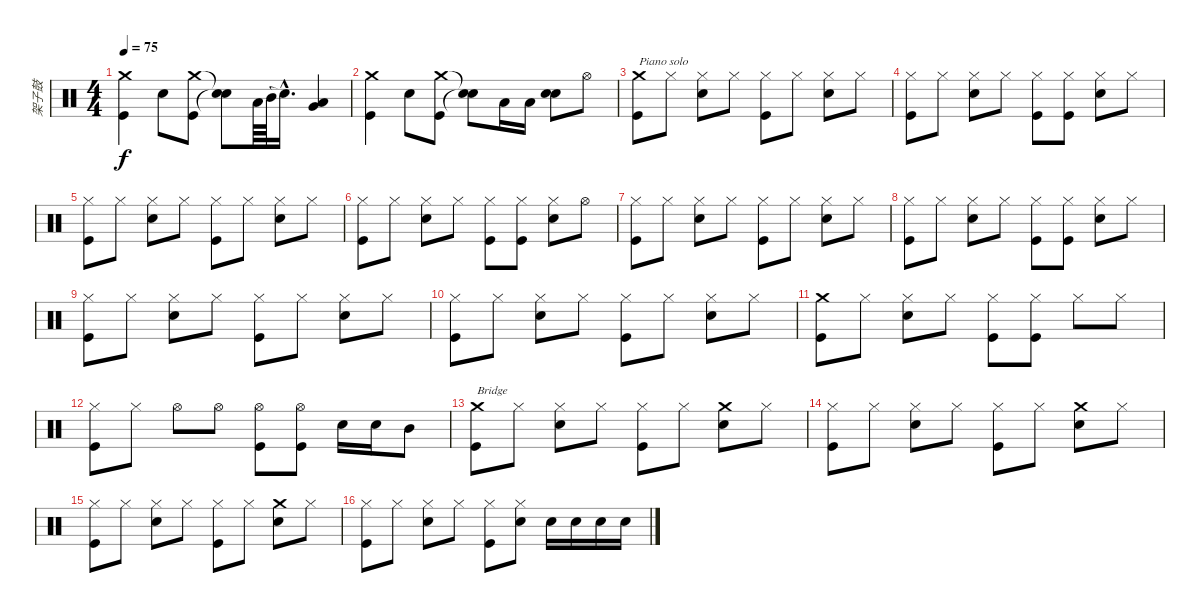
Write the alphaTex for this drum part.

\track ("架子鼓" "架子鼓") {instrument percussion}
\staff {score}
\articulation defaults
\ts (4 4)
\tempo 75
\clef neutral
\ks c
("Crash medium (hit)" "Kick (hit)").4{dy f} "Snare (hit) 2".8 ("Crash medium (hit)" "Kick (hit)").8 ("Snare (hit)"{t} "Snare (hit)"{t}).8 "Low Tom (hit)".64 "Mid Tom (hit)".64 "Snare (hit)"{hac t}.16{d} ("Low Tom (hit)" "Very Low Tom (hit)").4 |
("Crash medium (hit)" "Kick (hit)").4 "Snare (hit) 2".8 ("Crash medium (hit)" "Kick (hit)").8 ("Snare (hit)"{t} "Snare (hit)"{t}).8 "Low Tom (hit)".16 "Low Tom (hit)".16 ("Snare (hit) 2" "Snare (hit) 2").8 "Hi-Hat (open)".8 |
("Crash medium (hit)" "Kick (hit)").8{txt "Piano solo"} "Hi-Hat (closed)".8 ("Hi-Hat (closed)" "Snare (hit) 2").8 "Hi-Hat (closed)".8 ("Hi-Hat (closed)" "Kick (hit)").8 "Hi-Hat (closed)".8 ("Hi-Hat (closed)" "Snare (hit) 2").8 "Hi-Hat (closed)".8 |
("Hi-Hat (closed)" "Kick (hit)").8 "Hi-Hat (closed)".8 ("Hi-Hat (closed)" "Snare (hit) 2").8 "Hi-Hat (closed)".8 ("Hi-Hat (closed)" "Kick (hit)").8 ("Hi-Hat (closed)" "Kick (hit)").8 ("Hi-Hat (closed)" "Snare (hit) 2").8 "Hi-Hat (closed)".8 |
("Hi-Hat (closed)" "Kick (hit)").8 "Hi-Hat (closed)".8 ("Hi-Hat (closed)" "Snare (hit) 2").8 "Hi-Hat (closed)".8 ("Hi-Hat (closed)" "Kick (hit)").8 "Hi-Hat (closed)".8 ("Hi-Hat (closed)" "Snare (hit) 2").8 "Hi-Hat (closed)".8 |
("Hi-Hat (closed)" "Kick (hit)").8 "Hi-Hat (closed)".8 ("Hi-Hat (closed)" "Snare (hit) 2").8 "Hi-Hat (closed)".8 ("Hi-Hat (closed)" "Kick (hit)").8 ("Hi-Hat (closed)" "Kick (hit)").8 ("Hi-Hat (closed)" "Snare (hit) 2").8 "Hi-Hat (open)".8 |
("Hi-Hat (closed)" "Kick (hit)").8 "Hi-Hat (closed)".8 ("Hi-Hat (closed)" "Snare (hit) 2").8 "Hi-Hat (closed)".8 ("Hi-Hat (closed)" "Kick (hit)").8 "Hi-Hat (closed)".8 ("Hi-Hat (closed)" "Snare (hit) 2").8 "Hi-Hat (closed)".8 |
("Hi-Hat (closed)" "Kick (hit)").8 "Hi-Hat (closed)".8 ("Hi-Hat (closed)" "Snare (hit) 2").8 "Hi-Hat (closed)".8 ("Hi-Hat (closed)" "Kick (hit)").8 ("Hi-Hat (closed)" "Kick (hit)").8 ("Hi-Hat (closed)" "Snare (hit) 2").8 "Hi-Hat (closed)".8 |
("Hi-Hat (closed)" "Kick (hit)").8 "Hi-Hat (closed)".8 ("Hi-Hat (closed)" "Snare (hit) 2").8 "Hi-Hat (closed)".8 ("Hi-Hat (closed)" "Kick (hit)").8 "Hi-Hat (closed)".8 ("Hi-Hat (closed)" "Snare (hit) 2").8 "Hi-Hat (closed)".8 |
("Hi-Hat (closed)" "Kick (hit)").8 "Hi-Hat (closed)".8 ("Hi-Hat (closed)" "Snare (hit) 2").8 "Hi-Hat (closed)".8 ("Hi-Hat (closed)" "Kick (hit)").8 "Hi-Hat (closed)".8 ("Hi-Hat (closed)" "Snare (hit) 2").8 "Hi-Hat (closed)".8 |
("Crash medium (hit)" "Kick (hit)").8 "Hi-Hat (closed)".8 ("Hi-Hat (closed)" "Snare (hit) 2").8 "Hi-Hat (closed)".8 ("Hi-Hat (closed)" "Kick (hit)").8 ("Hi-Hat (closed)" "Kick (hit)").8 "Hi-Hat (closed)".8 "Hi-Hat (closed)".8 |
("Hi-Hat (closed)" "Kick (hit)").8 "Hi-Hat (closed)".8 "Hi-Hat (open)".8 "Hi-Hat (open)".8 ("Hi-Hat (open)" "Kick (hit)").8 ("Hi-Hat (open)" "Kick (hit)").8 "Snare (hit) 2".16 "Snare (hit) 2".16 "Mid Tom (hit)".8 |
("Crash medium (hit)" "Kick (hit)").8{txt "Bridge"} "Hi-Hat (closed)".8 ("Hi-Hat (closed)" "Snare (hit) 2").8 "Hi-Hat (closed)".8 ("Hi-Hat (closed)" "Kick (hit)").8 "Hi-Hat (closed)".8 ("Crash medium (hit)" "Snare (hit) 2").8 "Hi-Hat (closed)".8 |
("Hi-Hat (closed)" "Kick (hit)").8 "Hi-Hat (closed)".8 ("Hi-Hat (closed)" "Snare (hit) 2").8 "Hi-Hat (closed)".8 ("Hi-Hat (closed)" "Kick (hit)").8 "Hi-Hat (closed)".8 ("Crash medium (hit)" "Snare (hit) 2").8 "Hi-Hat (closed)".8 |
("Hi-Hat (closed)" "Kick (hit)").8 "Hi-Hat (closed)".8 ("Hi-Hat (closed)" "Snare (hit) 2").8 "Hi-Hat (closed)".8 ("Hi-Hat (closed)" "Kick (hit)").8 "Hi-Hat (closed)".8 ("Crash medium (hit)" "Snare (hit) 2").8 "Hi-Hat (closed)".8 |
("Hi-Hat (closed)" "Kick (hit)").8 "Hi-Hat (closed)".8 ("Hi-Hat (closed)" "Snare (hit) 2").8 "Hi-Hat (closed)".8 ("Hi-Hat (closed)" "Kick (hit)").8 ("Hi-Hat (closed)" "Snare (hit) 2").8 "Snare (hit) 2".16 "Snare (hit) 2".16 "Snare (hit) 2".16 "Snare (hit) 2".16
